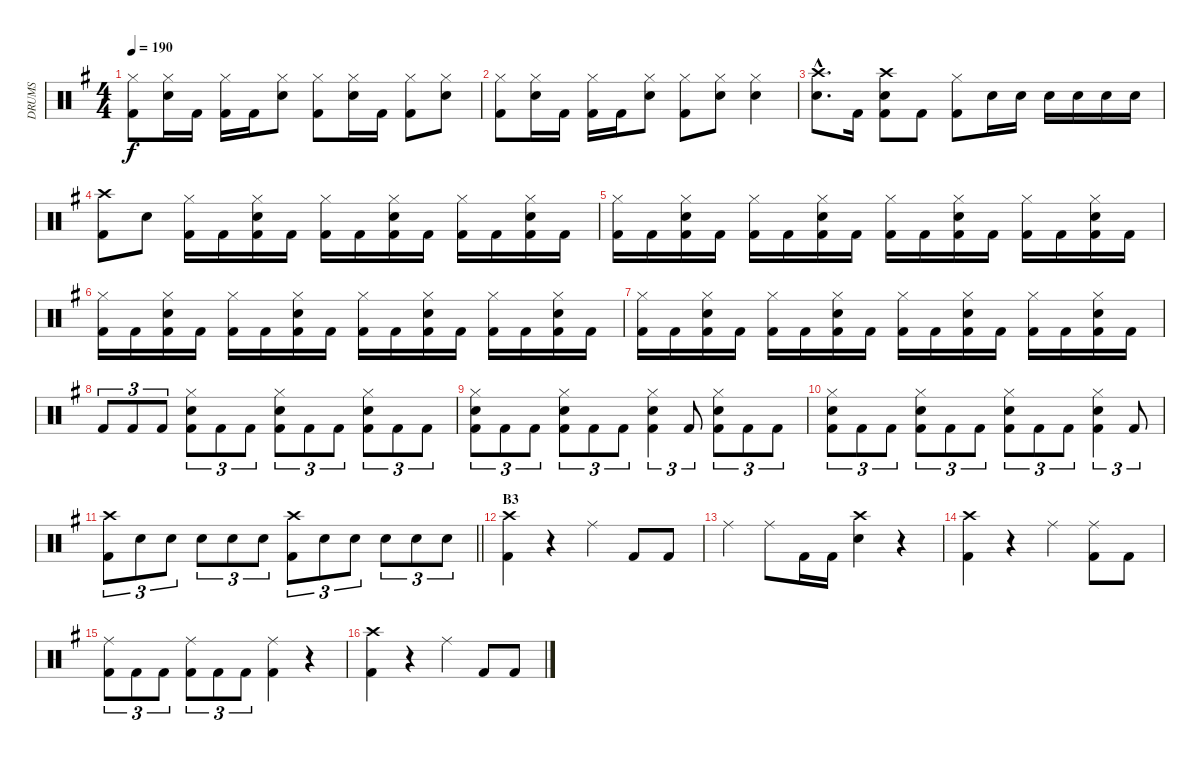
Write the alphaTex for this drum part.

\track ("DRUMS" "DRUMS") {instrument percussion}
\staff {score}
\articulation defaults
\ts (4 4)
\tempo 190
\clef neutral
\ks g
("Hi-Hat (closed)" "Kick (hit) 2").8{dy f} ("Hi-Hat (closed)" "Snare (hit) 2").16 "Kick (hit) 2".16 ("Hi-Hat (closed)" "Kick (hit) 2").16 "Kick (hit) 2".16 ("Hi-Hat (closed)" "Snare (hit) 2").8 ("Hi-Hat (closed)" "Kick (hit) 2").8 ("Hi-Hat (closed)" "Snare (hit) 2").16 "Kick (hit) 2".16 ("Hi-Hat (closed)" "Kick (hit) 2").8 ("Hi-Hat (closed)" "Snare (hit) 2").8 |
("Hi-Hat (closed)" "Kick (hit) 2").8 ("Hi-Hat (closed)" "Snare (hit) 2").16 "Kick (hit) 2".16 ("Hi-Hat (closed)" "Kick (hit) 2").16 "Kick (hit) 2".16 ("Hi-Hat (closed)" "Snare (hit) 2").8 ("Hi-Hat (closed)" "Kick (hit) 2").8 ("Hi-Hat (closed)" "Snare (hit) 2").8 ("Hi-Hat (closed)" "Snare (hit) 2").4 |
("Crash high (hit)"{hac} "Snare (hit) 2"{hac}).8{d} "Kick (hit) 2".16 ("Crash high (hit)" "Kick (hit) 2" "Snare (hit) 2").8 "Kick (hit) 2".8 ("Hi-Hat (closed)" "Kick (hit) 2").8 "Snare (hit) 2".16 "Snare (hit) 2".16 "Snare (hit) 2".16 "Snare (hit) 2".16 "Snare (hit) 2".16 "Snare (hit) 2".16 |
("Crash high (hit)" "Kick (hit) 2").8 "Snare (hit) 2".8 ("Hi-Hat (closed)" "Kick (hit) 2").16 "Kick (hit) 2".16 ("Hi-Hat (closed)" "Kick (hit) 2" "Snare (hit) 2").16 "Kick (hit) 2".16 ("Hi-Hat (closed)" "Kick (hit) 2").16 "Kick (hit) 2".16 ("Hi-Hat (closed)" "Kick (hit) 2" "Snare (hit) 2").16 "Kick (hit) 2".16 ("Hi-Hat (closed)" "Kick (hit) 2").16 "Kick (hit) 2".16 ("Hi-Hat (closed)" "Kick (hit) 2" "Snare (hit) 2").16 "Kick (hit) 2".16 |
("Hi-Hat (closed)" "Kick (hit) 2").16 "Kick (hit) 2".16 ("Hi-Hat (closed)" "Kick (hit) 2" "Snare (hit) 2").16 "Kick (hit) 2".16 ("Hi-Hat (closed)" "Kick (hit) 2").16 "Kick (hit) 2".16 ("Hi-Hat (closed)" "Kick (hit) 2" "Snare (hit) 2").16 "Kick (hit) 2".16 ("Hi-Hat (closed)" "Kick (hit) 2").16 "Kick (hit) 2".16 ("Hi-Hat (closed)" "Kick (hit) 2" "Snare (hit) 2").16 "Kick (hit) 2".16 ("Hi-Hat (closed)" "Kick (hit) 2").16 "Kick (hit) 2".16 ("Hi-Hat (closed)" "Kick (hit) 2" "Snare (hit) 2").16 "Kick (hit) 2".16 |
("Hi-Hat (closed)" "Kick (hit) 2").16 "Kick (hit) 2".16 ("Hi-Hat (closed)" "Kick (hit) 2" "Snare (hit) 2").16 "Kick (hit) 2".16 ("Hi-Hat (closed)" "Kick (hit) 2").16 "Kick (hit) 2".16 ("Hi-Hat (closed)" "Kick (hit) 2" "Snare (hit) 2").16 "Kick (hit) 2".16 ("Hi-Hat (closed)" "Kick (hit) 2").16 "Kick (hit) 2".16 ("Hi-Hat (closed)" "Kick (hit) 2" "Snare (hit) 2").16 "Kick (hit) 2".16 ("Hi-Hat (closed)" "Kick (hit) 2").16 "Kick (hit) 2".16 ("Hi-Hat (closed)" "Kick (hit) 2" "Snare (hit) 2").16 "Kick (hit) 2".16 |
("Hi-Hat (closed)" "Kick (hit) 2").16 "Kick (hit) 2".16 ("Hi-Hat (closed)" "Kick (hit) 2" "Snare (hit) 2").16 "Kick (hit) 2".16 ("Hi-Hat (closed)" "Kick (hit) 2").16 "Kick (hit) 2".16 ("Hi-Hat (closed)" "Kick (hit) 2" "Snare (hit) 2").16 "Kick (hit) 2".16 ("Hi-Hat (closed)" "Kick (hit) 2").16 "Kick (hit) 2".16 ("Hi-Hat (closed)" "Kick (hit) 2" "Snare (hit) 2").16 "Kick (hit) 2".16 ("Hi-Hat (closed)" "Kick (hit) 2").16 "Kick (hit) 2".16 ("Hi-Hat (closed)" "Kick (hit) 2" "Snare (hit) 2").16 "Kick (hit) 2".16 |
"Kick (hit) 2".8{tu (3 2)} "Kick (hit) 2".8{tu (3 2)} "Kick (hit) 2".8{tu (3 2)} ("Hi-Hat (closed)" "Kick (hit) 2" "Snare (hit) 2").8{tu (3 2)} "Kick (hit) 2".8{tu (3 2)} "Kick (hit) 2".8{tu (3 2)} ("Hi-Hat (closed)" "Kick (hit) 2" "Snare (hit) 2").8{tu (3 2)} "Kick (hit) 2".8{tu (3 2)} "Kick (hit) 2".8{tu (3 2)} ("Hi-Hat (closed)" "Kick (hit) 2" "Snare (hit) 2").8{tu (3 2)} "Kick (hit) 2".8{tu (3 2)} "Kick (hit) 2".8{tu (3 2)} |
("Hi-Hat (closed)" "Kick (hit) 2" "Snare (hit) 2").8{tu (3 2)} "Kick (hit) 2".8{tu (3 2)} "Kick (hit) 2".8{tu (3 2)} ("Hi-Hat (closed)" "Kick (hit) 2" "Snare (hit) 2").8{tu (3 2)} "Kick (hit) 2".8{tu (3 2)} "Kick (hit) 2".8{tu (3 2)} ("Hi-Hat (closed)" "Kick (hit) 2" "Snare (hit) 2").4{tu (3 2)} "Kick (hit) 2".8{tu (3 2)} ("Hi-Hat (closed)" "Kick (hit) 2" "Snare (hit) 2").8{tu (3 2)} "Kick (hit) 2".8{tu (3 2)} "Kick (hit) 2".8{tu (3 2)} |
("Hi-Hat (closed)" "Kick (hit) 2" "Snare (hit) 2").8{tu (3 2)} "Kick (hit) 2".8{tu (3 2)} "Kick (hit) 2".8{tu (3 2)} ("Hi-Hat (closed)" "Kick (hit) 2" "Snare (hit) 2").8{tu (3 2)} "Kick (hit) 2".8{tu (3 2)} "Kick (hit) 2".8{tu (3 2)} ("Hi-Hat (closed)" "Kick (hit) 2" "Snare (hit) 2").8{tu (3 2)} "Kick (hit) 2".8{tu (3 2)} "Kick (hit) 2".8{tu (3 2)} ("Hi-Hat (closed)" "Kick (hit) 2" "Snare (hit) 2").4{tu (3 2)} "Kick (hit) 2".8{tu (3 2)} |
\barLineRight lightlight
("Crash high (hit)" "Kick (hit) 2").8{tu (3 2)} "Snare (hit) 2".8{tu (3 2)} "Snare (hit) 2".8{tu (3 2)} "Snare (hit) 2".8{tu (3 2)} "Snare (hit) 2".8{tu (3 2)} "Snare (hit) 2".8{tu (3 2)} ("Crash high (hit)" "Kick (hit) 2").8{tu (3 2)} "Snare (hit) 2".8{tu (3 2)} "Snare (hit) 2".8{tu (3 2)} "Snare (hit) 2".8{tu (3 2)} "Snare (hit) 2".8{tu (3 2)} "Snare (hit) 2".8{tu (3 2)} |
\section ("" "B3")
("Crash high (hit)" "Kick (hit) 2").4 r.4 "Ride (middle)".4 "Kick (hit) 2".8 "Kick (hit) 2".8 |
"Ride (middle)".4 "Ride (middle)".8 "Kick (hit) 2".16 "Kick (hit) 2".16 ("Crash high (hit)" "Snare (hit) 2").4 r.4 |
("Crash high (hit)" "Kick (hit) 2").4 r.4 "Ride (middle)".4 ("Ride (middle)" "Kick (hit) 2").8 "Kick (hit) 2".8 |
("Ride (middle)" "Kick (hit) 2").8{tu (3 2)} "Kick (hit) 2".8{tu (3 2)} "Kick (hit) 2".8{tu (3 2)} ("Ride (middle)" "Kick (hit) 2").8{tu (3 2)} "Kick (hit) 2".8{tu (3 2)} "Kick (hit) 2".8{tu (3 2)} ("Ride (middle)" "Kick (hit) 2").4 r.4 |
("Crash high (hit)" "Kick (hit) 2").4 r.4 "Ride (middle)".4 "Kick (hit) 2".8 "Kick (hit) 2".8
